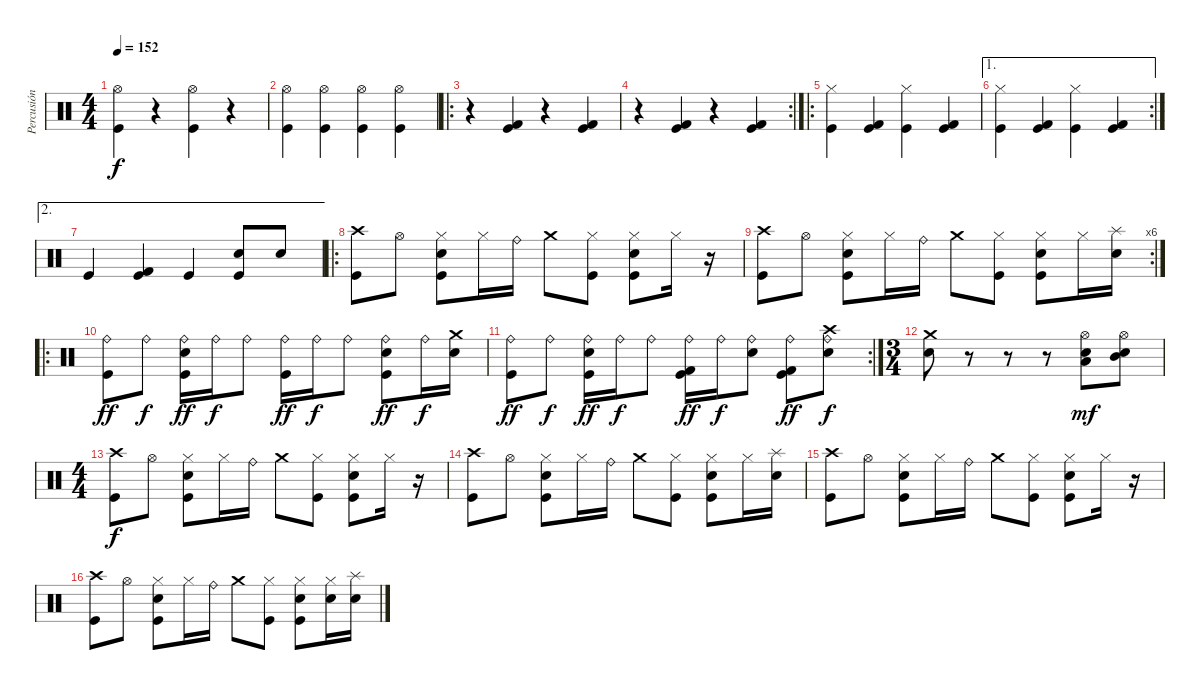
\track ("Percusión" "Percusión") {instrument percussion}
\staff {score}
\articulation defaults
\ts (4 4)
\tempo 152
\clef neutral
\ks c
("Kick (hit)" "Hi-Hat (open)").4{dy f} r.4 ("Kick (hit)" "Hi-Hat (open)").4 r.4 |
("Kick (hit)" "Hi-Hat (open)").4 ("Kick (hit)" "Hi-Hat (open)").4 ("Kick (hit)" "Hi-Hat (open)").4 ("Kick (hit)" "Hi-Hat (open)").4 |
\ro
r.4 ("Kick (hit)" "Kick (hit) 2").4 r.4 ("Kick (hit)" "Kick (hit) 2").4 |
\rc 2
r.4 ("Kick (hit)" "Kick (hit) 2").4 r.4 ("Kick (hit)" "Kick (hit) 2").4 |
\ro
("Kick (hit)" "Hi-Hat (closed)").4 ("Kick (hit)" "Kick (hit) 2").4 ("Kick (hit)" "Hi-Hat (closed)").4 ("Kick (hit)" "Kick (hit) 2").4 |
\ae 1
\rc 2
("Kick (hit)" "Hi-Hat (closed)").4 ("Kick (hit)" "Kick (hit) 2").4 ("Kick (hit)" "Hi-Hat (closed)").4 ("Kick (hit)" "Kick (hit) 2").4 |
\ae 2 "Kick (hit)".4
("Kick (hit)" "Kick (hit) 2").4 "Kick (hit)".4 ("Kick (hit)" "Electric Snare (hit)").8 "Electric Snare (hit)".8 |
\ro
("Crash high (hit)" "Kick (hit)").8 "Hi-Hat (open)".8 ("Hi-Hat (closed)" "Electric Snare (hit)" "Kick (hit)").8 "Hi-Hat (closed)".16 "Ride (bell)".16 "Crash medium (hit)".8 ("Hi-Hat (closed)" "Kick (hit)").8 ("Hi-Hat (closed)" "Electric Snare (hit)" "Kick (hit)").8 "Hi-Hat (closed)".16 r.16 |
\rc 6
("Crash high (hit)" "Kick (hit)").8 "Hi-Hat (open)".8 ("Hi-Hat (closed)" "Electric Snare (hit)" "Kick (hit)").8 "Hi-Hat (closed)".16 "Ride (bell)".16 "Crash medium (hit)".8 ("Hi-Hat (closed)" "Kick (hit)").8 ("Hi-Hat (closed)" "Electric Snare (hit)" "Kick (hit)").8 "Hi-Hat (closed)".16 ("Splash (hit)" "Electric Snare (hit)").16 |
\ro
("Ride (bell)" "Kick (hit)").8{dy ff} "Ride (bell)".8{dy f} ("Ride (bell)" "Electric Snare (hit)" "Kick (hit)").16{dy ff} "Ride (bell)".16{dy f} "Ride (bell)".8 ("Ride (bell)" "Kick (hit)").16{dy ff} "Ride (bell)".16{dy f} "Ride (bell)".8 ("Ride (bell)" "Electric Snare (hit)" "Kick (hit)").8{dy ff} "Ride (bell)".16{dy f} ("Crash medium (hit)" "Electric Snare (hit)").16 |
\rc 2
("Ride (bell)" "Kick (hit)").8{dy ff} "Ride (bell)".8{dy f} ("Ride (bell)" "Electric Snare (hit)" "Kick (hit)").16{dy ff} "Ride (bell)".16{dy f} "Ride (bell)".8 ("Ride (bell)" "Kick (hit) 2" "Kick (hit)").16{dy ff} "Ride (bell)".16{dy f} ("Ride (bell)" "Electric Snare (hit)").8 ("Ride (bell)" "Kick (hit) 2" "Kick (hit)").8{dy ff} ("Ride (bell)" "Crash high (hit)" "Electric Snare (hit)").8{dy f} |
\ts (3 4)
("Electric Snare (hit)" "Crash medium (hit)").8 r.8 r.8 r.8 ("Low Tom (hit)" "Hi-Hat (open)" "Electric Snare (hit)").8{dy mf} ("Mid Tom (hit)" "Hi-Hat (open)" "Electric Snare (hit)").8 |
\ts (4 4)
("Crash high (hit)" "Kick (hit)").8{dy f} "Hi-Hat (open)".8 ("Hi-Hat (closed)" "Electric Snare (hit)" "Kick (hit)").8 "Hi-Hat (closed)".16 "Ride (bell)".16 "Crash medium (hit)".8 ("Hi-Hat (closed)" "Kick (hit)").8 ("Hi-Hat (closed)" "Electric Snare (hit)" "Kick (hit)").8 "Hi-Hat (closed)".16 r.16 |
("Crash high (hit)" "Kick (hit)").8 "Hi-Hat (open)".8 ("Hi-Hat (closed)" "Electric Snare (hit)" "Kick (hit)").8 "Hi-Hat (closed)".16 "Ride (bell)".16 "Crash medium (hit)".8 ("Hi-Hat (closed)" "Kick (hit)").8 ("Hi-Hat (closed)" "Electric Snare (hit)" "Kick (hit)").8 "Hi-Hat (closed)".16 ("Splash (hit)" "Electric Snare (hit)").16 |
("Crash high (hit)" "Kick (hit)").8 "Hi-Hat (open)".8 ("Hi-Hat (closed)" "Electric Snare (hit)" "Kick (hit)").8 "Hi-Hat (closed)".16 "Ride (bell)".16 "Crash medium (hit)".8 ("Hi-Hat (closed)" "Kick (hit)").8 ("Hi-Hat (closed)" "Electric Snare (hit)" "Kick (hit)").8 "Hi-Hat (closed)".16 r.16 |
("Crash high (hit)" "Kick (hit)").8 "Hi-Hat (open)".8 ("Hi-Hat (closed)" "Electric Snare (hit)" "Kick (hit)").8 "Hi-Hat (closed)".16 "Ride (bell)".16 "Crash medium (hit)".8 ("Hi-Hat (closed)" "Kick (hit)").8 ("Hi-Hat (closed)" "Electric Snare (hit)" "Kick (hit)").8 ("Hi-Hat (closed)" "Electric Snare (hit)").16 ("Splash (hit)" "Electric Snare (hit)").16
